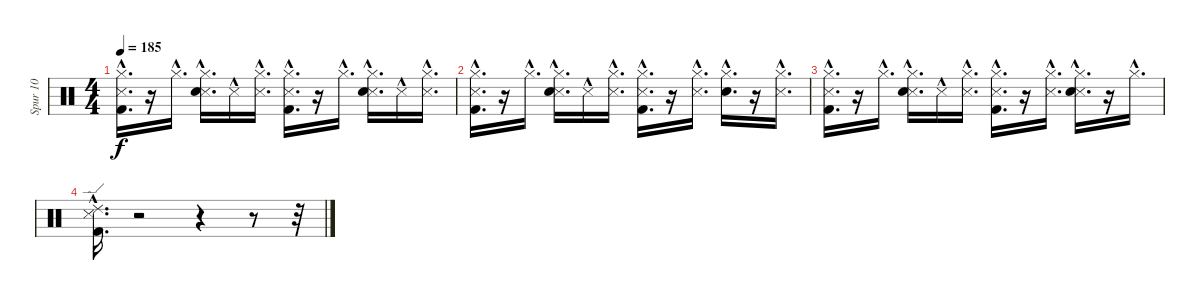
\track ("Spur 10" "Spur 10") {instrument percussion}
\staff {score}
\articulation defaults
\ts (4 4)
\tempo 185
\clef neutral
\ks c
("Metronome (hit)"{hac} "Hi-Hat (closed)"{hac} "Kick (hit) 2"{hac}).16{d dy f} r.16 "Hi-Hat (closed)"{hac}.16{d} ("Metronome (hit)"{hac} "Hi-Hat (closed)"{hac} "Snare (hit) 2"{hac}).16{d} "Metronome (hit)"{hac}.16 ("Metronome (hit)"{hac} "Hi-Hat (closed)"{hac}).16{d} ("Metronome (hit)"{hac} "Hi-Hat (closed)"{hac} "Kick (hit) 2"{hac}).16{d} r.16 "Hi-Hat (closed)"{hac}.16{d} ("Metronome (hit)"{hac} "Hi-Hat (closed)"{hac} "Snare (hit) 2"{hac}).16{d} "Metronome (hit)"{hac}.16 ("Metronome (hit)"{hac} "Hi-Hat (closed)"{hac}).16{d} |
("Metronome (hit)"{hac} "Kick (hit) 2"{hac} "Hi-Hat (closed)"{hac}).16{d} r.16 "Hi-Hat (closed)"{hac}.16{d} ("Metronome (hit)"{hac} "Snare (hit) 2"{hac} "Hi-Hat (closed)"{hac}).16{d} "Metronome (hit)"{hac}.16 ("Metronome (hit)"{hac} "Hi-Hat (closed)"{hac}).16{d} ("Metronome (hit)"{hac} "Kick (hit) 2"{hac} "Hi-Hat (closed)"{hac}).16{d} r.16 ("Metronome (hit)"{hac} "Hi-Hat (closed)"{hac}).16{d} ("Snare (hit) 2"{hac} "Hi-Hat (closed)"{hac}).16{d} r.16 ("Metronome (hit)"{hac} "Hi-Hat (closed)"{hac}).16{d} |
("Metronome (hit)"{hac} "Kick (hit) 2"{hac} "Hi-Hat (closed)"{hac}).16{d} r.16 "Hi-Hat (closed)"{hac}.16{d} ("Metronome (hit)"{hac} "Snare (hit) 2"{hac} "Hi-Hat (closed)"{hac}).16{d} "Metronome (hit)"{hac}.16 ("Metronome (hit)"{hac} "Hi-Hat (closed)"{hac}).16{d} ("Metronome (hit)"{hac} "Kick (hit) 2"{hac} "Hi-Hat (closed)"{hac}).16{d} r.16 ("Metronome (hit)"{hac} "Hi-Hat (closed)"{hac}).16{d} ("Metronome (hit)"{hac} "Snare (hit) 2"{hac} "Hi-Hat (closed)"{hac}).16{d} r.16 "Hi-Hat (closed)"{hac}.16{d} |
("Metronome (hit)"{hac} "Ride (edge) 2"{hac} "Kick (hit) 2"{hac}).16{d} r.2 r.4 r.8 r.32
